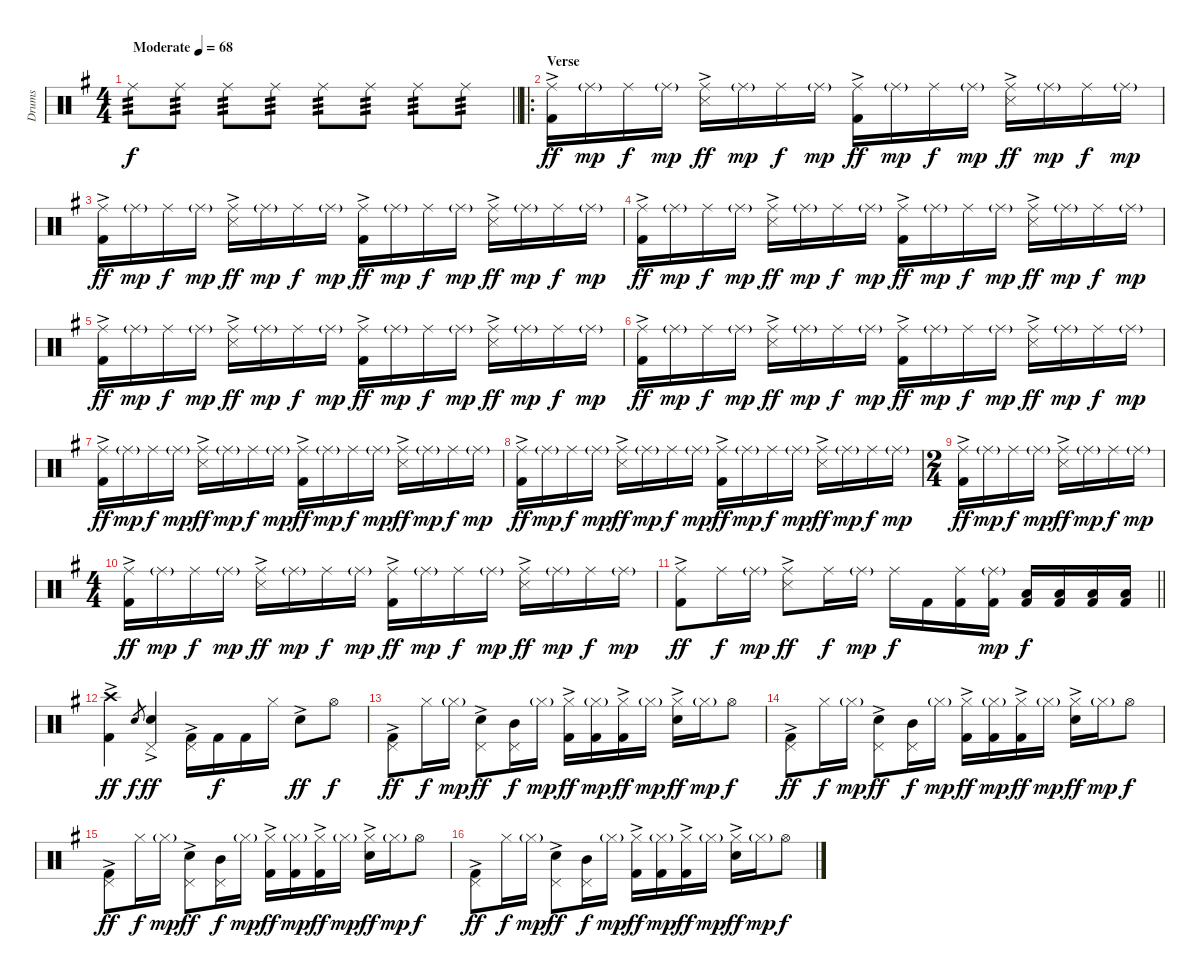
\track ("Drums" "Drums") {instrument percussion}
\staff {score}
\articulation defaults
\ts (4 4)
\tempo (68 "Moderate")
\clef neutral
\barLineRight lightlight
\ks g "Ride (middle)".8{tp 3 dy f volume 0} "Ride (middle)".8{tp 3} "Ride (middle)".8{tp 3 volume 11} "Ride (middle)".8{tp 3} "Ride (middle)".8{tp 3} "Ride (middle)".8{tp 3} "Ride (middle)".8{tp 3} "Ride (middle)".8{tp 3}
|
\ro
\section ("" "Verse")
("Ride (middle)" "Kick (hit) 2"{ac}).16{dy ff} "Ride (middle)"{g}.16{dy mp} "Ride (middle)".16{dy f} "Ride (middle)"{g}.16{dy mp} ("Ride (middle)" "Snare (side stick) 3"{ac}).16{dy ff} "Ride (middle)"{g}.16{dy mp} "Ride (middle)".16{dy f} "Ride (middle)"{g}.16{dy mp} ("Ride (middle)" "Kick (hit) 2"{ac}).16{dy ff} "Ride (middle)"{g}.16{dy mp} "Ride (middle)".16{dy f} "Ride (middle)"{g}.16{dy mp} ("Ride (middle)" "Snare (side stick) 3"{ac}).16{dy ff} "Ride (middle)"{g}.16{dy mp} "Ride (middle)".16{dy f} "Ride (middle)"{g}.16{dy mp} |
("Ride (middle)" "Kick (hit) 2"{ac}).16{dy ff} "Ride (middle)"{g}.16{dy mp} "Ride (middle)".16{dy f} "Ride (middle)"{g}.16{dy mp} ("Ride (middle)" "Snare (side stick) 3"{ac}).16{dy ff} "Ride (middle)"{g}.16{dy mp} "Ride (middle)".16{dy f} "Ride (middle)"{g}.16{dy mp} ("Ride (middle)" "Kick (hit) 2"{ac}).16{dy ff} "Ride (middle)"{g}.16{dy mp} "Ride (middle)".16{dy f} "Ride (middle)"{g}.16{dy mp} ("Ride (middle)" "Snare (side stick) 3"{ac}).16{dy ff} "Ride (middle)"{g}.16{dy mp} "Ride (middle)".16{dy f} "Ride (middle)"{g}.16{dy mp} |
("Ride (middle)" "Kick (hit) 2"{ac}).16{dy ff} "Ride (middle)"{g}.16{dy mp} "Ride (middle)".16{dy f} "Ride (middle)"{g}.16{dy mp} ("Ride (middle)" "Snare (side stick) 3"{ac}).16{dy ff} "Ride (middle)"{g}.16{dy mp} "Ride (middle)".16{dy f} "Ride (middle)"{g}.16{dy mp} ("Ride (middle)" "Kick (hit) 2"{ac}).16{dy ff} "Ride (middle)"{g}.16{dy mp} "Ride (middle)".16{dy f} "Ride (middle)"{g}.16{dy mp} ("Ride (middle)" "Snare (side stick) 3"{ac}).16{dy ff} "Ride (middle)"{g}.16{dy mp} "Ride (middle)".16{dy f} "Ride (middle)"{g}.16{dy mp} |
("Ride (middle)" "Kick (hit) 2"{ac}).16{dy ff} "Ride (middle)"{g}.16{dy mp} "Ride (middle)".16{dy f} "Ride (middle)"{g}.16{dy mp} ("Ride (middle)" "Snare (side stick) 3"{ac}).16{dy ff} "Ride (middle)"{g}.16{dy mp} "Ride (middle)".16{dy f} "Ride (middle)"{g}.16{dy mp} ("Ride (middle)" "Kick (hit) 2"{ac}).16{dy ff} "Ride (middle)"{g}.16{dy mp} "Ride (middle)".16{dy f} "Ride (middle)"{g}.16{dy mp} ("Ride (middle)" "Snare (side stick) 3"{ac}).16{dy ff} "Ride (middle)"{g}.16{dy mp} "Ride (middle)".16{dy f} "Ride (middle)"{g}.16{dy mp} |
("Ride (middle)" "Kick (hit) 2"{ac}).16{dy ff} "Ride (middle)"{g}.16{dy mp} "Ride (middle)".16{dy f} "Ride (middle)"{g}.16{dy mp} ("Ride (middle)" "Snare (side stick) 3"{ac}).16{dy ff} "Ride (middle)"{g}.16{dy mp} "Ride (middle)".16{dy f} "Ride (middle)"{g}.16{dy mp} ("Ride (middle)" "Kick (hit) 2"{ac}).16{dy ff} "Ride (middle)"{g}.16{dy mp} "Ride (middle)".16{dy f} "Ride (middle)"{g}.16{dy mp} ("Ride (middle)" "Snare (side stick) 3"{ac}).16{dy ff} "Ride (middle)"{g}.16{dy mp} "Ride (middle)".16{dy f} "Ride (middle)"{g}.16{dy mp} |
("Ride (middle)" "Kick (hit) 2"{ac}).16{dy ff} "Ride (middle)"{g}.16{dy mp} "Ride (middle)".16{dy f} "Ride (middle)"{g}.16{dy mp} ("Ride (middle)" "Snare (side stick) 3"{ac}).16{dy ff} "Ride (middle)"{g}.16{dy mp} "Ride (middle)".16{dy f} "Ride (middle)"{g}.16{dy mp} ("Ride (middle)" "Kick (hit) 2"{ac}).16{dy ff} "Ride (middle)"{g}.16{dy mp} "Ride (middle)".16{dy f} "Ride (middle)"{g}.16{dy mp} ("Ride (middle)" "Snare (side stick) 3"{ac}).16{dy ff} "Ride (middle)"{g}.16{dy mp} "Ride (middle)".16{dy f} "Ride (middle)"{g}.16{dy mp} |
("Ride (middle)" "Kick (hit) 2"{ac}).16{dy ff} "Ride (middle)"{g}.16{dy mp} "Ride (middle)".16{dy f} "Ride (middle)"{g}.16{dy mp} ("Ride (middle)" "Snare (side stick) 3"{ac}).16{dy ff} "Ride (middle)"{g}.16{dy mp} "Ride (middle)".16{dy f} "Ride (middle)"{g}.16{dy mp} ("Ride (middle)" "Kick (hit) 2"{ac}).16{dy ff} "Ride (middle)"{g}.16{dy mp} "Ride (middle)".16{dy f} "Ride (middle)"{g}.16{dy mp} ("Ride (middle)" "Snare (side stick) 3"{ac}).16{dy ff} "Ride (middle)"{g}.16{dy mp} "Ride (middle)".16{dy f} "Ride (middle)"{g}.16{dy mp} |
\ts (2 4)
("Ride (middle)" "Kick (hit) 2"{ac}).16{dy ff} "Ride (middle)"{g}.16{dy mp} "Ride (middle)".16{dy f} "Ride (middle)"{g}.16{dy mp} ("Ride (middle)" "Snare (side stick) 3"{ac}).16{dy ff} "Ride (middle)"{g}.16{dy mp} "Ride (middle)".16{dy f} "Ride (middle)"{g}.16{dy mp} |
\ts (4 4)
("Ride (middle)" "Kick (hit) 2"{ac}).16{dy ff} "Ride (middle)"{g}.16{dy mp} "Ride (middle)".16{dy f} "Ride (middle)"{g}.16{dy mp} ("Ride (middle)" "Snare (side stick) 3"{ac}).16{dy ff} "Ride (middle)"{g}.16{dy mp} "Ride (middle)".16{dy f} "Ride (middle)"{g}.16{dy mp} ("Ride (middle)" "Kick (hit) 2"{ac}).16{dy ff} "Ride (middle)"{g}.16{dy mp} "Ride (middle)".16{dy f} "Ride (middle)"{g}.16{dy mp} ("Ride (middle)" "Snare (side stick) 3"{ac}).16{dy ff} "Ride (middle)"{g}.16{dy mp} "Ride (middle)".16{dy f} "Ride (middle)"{g}.16{dy mp} |
\barLineRight lightlight
("Ride (middle)" "Kick (hit) 2"{ac}).8{dy ff} "Ride (middle)".16{dy f} "Ride (middle)"{g}.16{dy mp} ("Ride (middle)" "Snare (side stick) 3"{ac}).8{dy ff} "Ride (middle)".16{dy f} "Ride (middle)"{g}.16{dy mp} "Ride (middle)".16{dy f} "Kick (hit) 2".16 ("Ride (middle)" "Kick (hit) 2").16 ("Ride (middle)"{g} "Kick (hit) 2").16{dy mp} ("Low Floor Tom (hit)" "Kick (hit) 2").16{dy f} ("Low Floor Tom (hit)" "Kick (hit) 2").16 ("Low Floor Tom (hit)" "Kick (hit) 2").16 ("Low Floor Tom (hit)" "Kick (hit) 2").16 |
("Crash high (hit)" "Kick (hit) 2"{ac}).4{dy ff} "Snare (hit) 2".8{gr dy f} ("Pedal Hi-Hat (hit)" "Snare (hit) 2"{ac}).4{dy ff} ("Pedal Hi-Hat (hit)" "Kick (hit) 2"{ac}).16 "Kick (hit) 2".16{dy f} "Kick (hit) 2".16 "Hi-Hat (closed)".16 "Snare (hit) 2"{ac}.8{dy ff} "Hi-Hat (open)".8{dy f} |
("Pedal Hi-Hat (hit)" "Kick (hit) 2"{ac}).8{dy ff} "Hi-Hat (closed)".16{dy f} "Hi-Hat (closed)"{g}.16{dy mp} ("Pedal Hi-Hat (hit)" "Snare (hit) 2"{ac}).8{dy ff} ("Pedal Hi-Hat (hit)" "Mid Tom (hit)").16{dy f} "Hi-Hat (closed)"{g}.16{dy mp} ("Hi-Hat (closed)" "Kick (hit) 2"{ac}).16{dy ff} ("Hi-Hat (closed)"{g} "Kick (hit) 2").16{dy mp} ("Hi-Hat (closed)" "Kick (hit) 2"{ac}).16{dy ff} "Hi-Hat (closed)"{g}.16{dy mp} ("Hi-Hat (closed)" "Snare (hit) 2"{ac}).16{dy ff} "Hi-Hat (closed)"{g}.16{dy mp} "Hi-Hat (open)".8{dy f} |
("Pedal Hi-Hat (hit)" "Kick (hit) 2"{ac}).8{dy ff} "Hi-Hat (closed)".16{dy f} "Hi-Hat (closed)"{g}.16{dy mp} ("Pedal Hi-Hat (hit)" "Snare (hit) 2"{ac}).8{dy ff} ("Pedal Hi-Hat (hit)" "Mid Tom (hit)").16{dy f} "Hi-Hat (closed)"{g}.16{dy mp} ("Hi-Hat (closed)" "Kick (hit) 2"{ac}).16{dy ff} ("Hi-Hat (closed)"{g} "Kick (hit) 2").16{dy mp} ("Hi-Hat (closed)" "Kick (hit) 2"{ac}).16{dy ff} "Hi-Hat (closed)"{g}.16{dy mp} ("Hi-Hat (closed)" "Snare (hit) 2"{ac}).16{dy ff} "Hi-Hat (closed)"{g}.16{dy mp} "Hi-Hat (open)".8{dy f} |
("Pedal Hi-Hat (hit)" "Kick (hit) 2"{ac}).8{dy ff} "Hi-Hat (closed)".16{dy f} "Hi-Hat (closed)"{g}.16{dy mp} ("Pedal Hi-Hat (hit)" "Snare (hit) 2"{ac}).8{dy ff} ("Pedal Hi-Hat (hit)" "Mid Tom (hit)").16{dy f} "Hi-Hat (closed)"{g}.16{dy mp} ("Hi-Hat (closed)" "Kick (hit) 2"{ac}).16{dy ff} ("Hi-Hat (closed)"{g} "Kick (hit) 2").16{dy mp} ("Hi-Hat (closed)" "Kick (hit) 2"{ac}).16{dy ff} "Hi-Hat (closed)"{g}.16{dy mp} ("Hi-Hat (closed)" "Snare (hit) 2"{ac}).16{dy ff} "Hi-Hat (closed)"{g}.16{dy mp} "Hi-Hat (open)".8{dy f} |
("Pedal Hi-Hat (hit)" "Kick (hit) 2"{ac}).8{dy ff} "Hi-Hat (closed)".16{dy f} "Hi-Hat (closed)"{g}.16{dy mp} ("Pedal Hi-Hat (hit)" "Snare (hit) 2"{ac}).8{dy ff} ("Pedal Hi-Hat (hit)" "Mid Tom (hit)").16{dy f} "Hi-Hat (closed)"{g}.16{dy mp} ("Hi-Hat (closed)" "Kick (hit) 2"{ac}).16{dy ff} ("Hi-Hat (closed)"{g} "Kick (hit) 2").16{dy mp} ("Hi-Hat (closed)" "Kick (hit) 2"{ac}).16{dy ff} "Hi-Hat (closed)"{g}.16{dy mp} ("Hi-Hat (closed)" "Snare (hit) 2"{ac}).16{dy ff} "Hi-Hat (closed)"{g}.16{dy mp} "Hi-Hat (open)".8{dy f}
